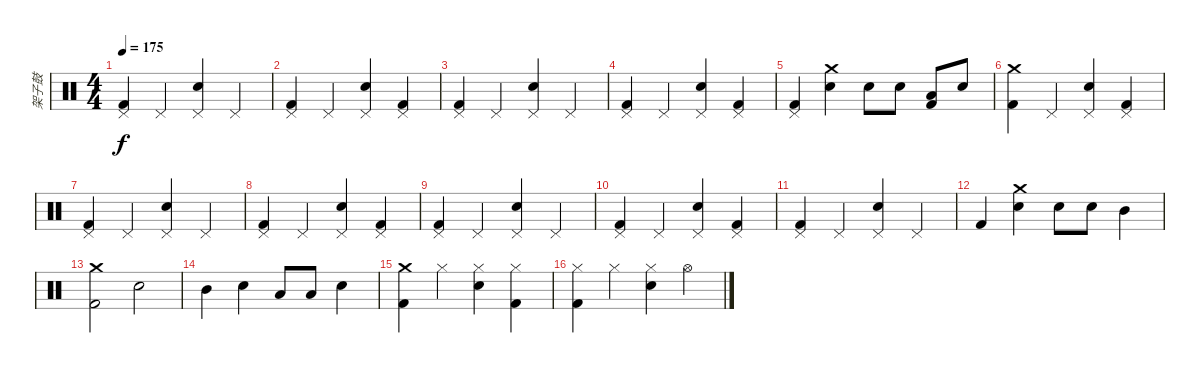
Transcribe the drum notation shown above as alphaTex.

\track ("架子鼓" "架子鼓") {instrument percussion}
\staff {score}
\articulation defaults
\ts (4 4)
\tempo 175
\clef neutral
\ks c
("Pedal Hi-Hat (hit)" "Kick (hit) 2").4{dy f} "Pedal Hi-Hat (hit)".4 ("Pedal Hi-Hat (hit)" "Electric Snare (hit)").4 "Pedal Hi-Hat (hit)".4 |
("Pedal Hi-Hat (hit)" "Kick (hit) 2").4 "Pedal Hi-Hat (hit)".4 ("Pedal Hi-Hat (hit)" "Electric Snare (hit)").4 ("Pedal Hi-Hat (hit)" "Kick (hit) 2").4 |
("Pedal Hi-Hat (hit)" "Kick (hit) 2").4 "Pedal Hi-Hat (hit)".4 ("Pedal Hi-Hat (hit)" "Electric Snare (hit)").4 "Pedal Hi-Hat (hit)".4 |
("Pedal Hi-Hat (hit)" "Kick (hit) 2").4 "Pedal Hi-Hat (hit)".4 ("Pedal Hi-Hat (hit)" "Electric Snare (hit)").4 ("Pedal Hi-Hat (hit)" "Kick (hit) 2").4 |
("Pedal Hi-Hat (hit)" "Kick (hit) 2").4 ("Crash medium (hit)" "Electric Snare (hit)").4 "Electric Snare (hit)".8 "Electric Snare (hit)".8 ("Kick (hit) 2" "Low Tom (hit)").8 "Electric Snare (hit)".8 |
("Crash medium (hit)" "Kick (hit) 2").4 "Pedal Hi-Hat (hit)".4 ("Pedal Hi-Hat (hit)" "Electric Snare (hit)").4 ("Pedal Hi-Hat (hit)" "Kick (hit) 2").4 |
("Pedal Hi-Hat (hit)" "Kick (hit) 2").4 "Pedal Hi-Hat (hit)".4 ("Pedal Hi-Hat (hit)" "Electric Snare (hit)").4 "Pedal Hi-Hat (hit)".4 |
("Pedal Hi-Hat (hit)" "Kick (hit) 2").4 "Pedal Hi-Hat (hit)".4 ("Pedal Hi-Hat (hit)" "Electric Snare (hit)").4 ("Pedal Hi-Hat (hit)" "Kick (hit) 2").4 |
("Pedal Hi-Hat (hit)" "Kick (hit) 2").4 "Pedal Hi-Hat (hit)".4 ("Pedal Hi-Hat (hit)" "Electric Snare (hit)").4 "Pedal Hi-Hat (hit)".4 |
("Pedal Hi-Hat (hit)" "Kick (hit) 2").4 "Pedal Hi-Hat (hit)".4 ("Pedal Hi-Hat (hit)" "Electric Snare (hit)").4 ("Pedal Hi-Hat (hit)" "Kick (hit) 2").4 |
("Pedal Hi-Hat (hit)" "Kick (hit) 2").4 "Pedal Hi-Hat (hit)".4 ("Pedal Hi-Hat (hit)" "Electric Snare (hit)").4 "Pedal Hi-Hat (hit)".4 |
"Kick (hit) 2".4 ("Crash medium (hit)" "Electric Snare (hit)").4 "Electric Snare (hit)".8 "Electric Snare (hit)".8 "Mid Tom (hit)".4 |
("Crash medium (hit)" "Kick (hit) 2").2 "Electric Snare (hit)".2 |
"Mid Tom (hit)".4 "Electric Snare (hit)".4 "Low Tom (hit)".8 "Low Tom (hit)".8 "Electric Snare (hit)".4 |
("Crash medium (hit)" "Kick (hit) 2").4 "Hi-Hat (closed)".4 ("Hi-Hat (closed)" "Electric Snare (hit)").4 ("Hi-Hat (closed)" "Kick (hit) 2").4 |
("Hi-Hat (closed)" "Kick (hit) 2").4 "Hi-Hat (closed)".4 ("Hi-Hat (closed)" "Electric Snare (hit)").4 "Hi-Hat (open)".4
